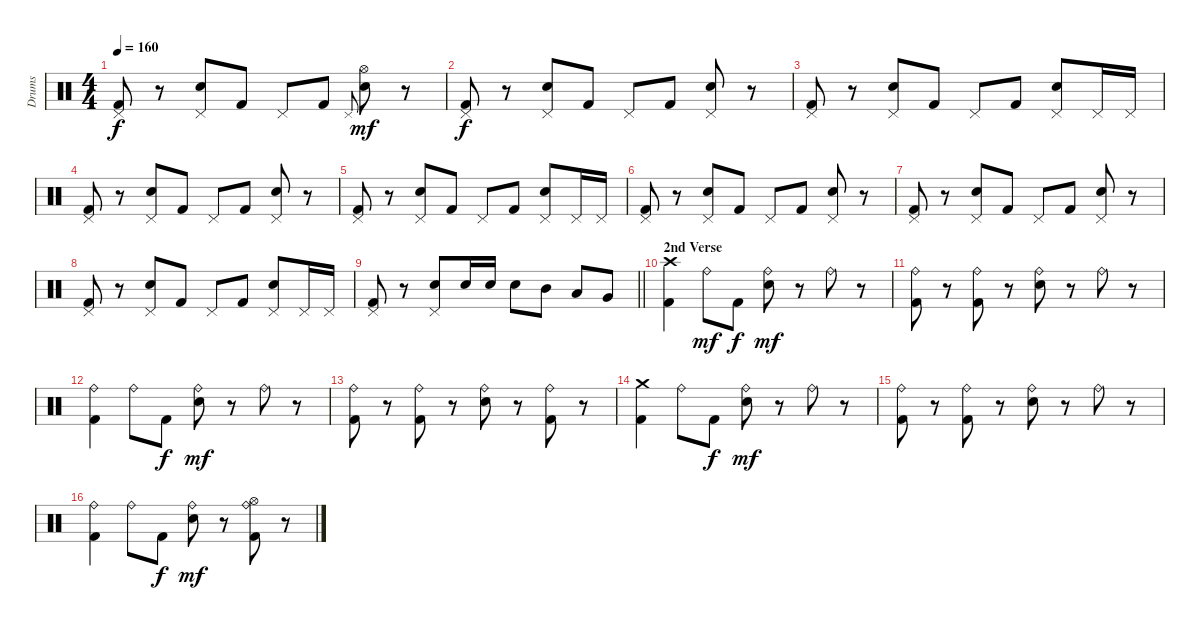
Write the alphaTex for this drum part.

\track ("Drums" "Drums") {instrument percussion}
\staff {score}
\articulation defaults
\ts (4 4)
\tempo 160
\clef neutral
\ks c
("Pedal Hi-Hat (hit)" "Kick (hit) 2").8{dy f} r.8 ("Pedal Hi-Hat (hit)" "Electric Snare (hit)").8 "Kick (hit) 2".8 "Pedal Hi-Hat (hit)".8 "Kick (hit) 2".8 "Pedal Hi-Hat (hit)".8{gr onbeat} ("Hi-Hat (open)" "Electric Snare (hit)").8{dy mf} r.8 |
("Pedal Hi-Hat (hit)" "Kick (hit) 2").8{dy f} r.8 ("Pedal Hi-Hat (hit)" "Electric Snare (hit)").8 "Kick (hit) 2".8 "Pedal Hi-Hat (hit)".8 "Kick (hit) 2".8 ("Pedal Hi-Hat (hit)" "Electric Snare (hit)").8 r.8 |
("Pedal Hi-Hat (hit)" "Kick (hit) 2").8 r.8 ("Pedal Hi-Hat (hit)" "Electric Snare (hit)").8 "Kick (hit) 2".8 "Pedal Hi-Hat (hit)".8 "Kick (hit) 2".8 ("Pedal Hi-Hat (hit)" "Electric Snare (hit)").8 "Pedal Hi-Hat (hit)".16 "Pedal Hi-Hat (hit)".16 |
("Pedal Hi-Hat (hit)" "Kick (hit) 2").8 r.8 ("Pedal Hi-Hat (hit)" "Electric Snare (hit)").8 "Kick (hit) 2".8 "Pedal Hi-Hat (hit)".8 "Kick (hit) 2".8 ("Pedal Hi-Hat (hit)" "Electric Snare (hit)").8 r.8 |
("Pedal Hi-Hat (hit)" "Kick (hit) 2").8 r.8 ("Pedal Hi-Hat (hit)" "Electric Snare (hit)").8 "Kick (hit) 2".8 "Pedal Hi-Hat (hit)".8 "Kick (hit) 2".8 ("Pedal Hi-Hat (hit)" "Electric Snare (hit)").8 "Pedal Hi-Hat (hit)".16 "Pedal Hi-Hat (hit)".16 |
("Pedal Hi-Hat (hit)" "Kick (hit) 2").8 r.8 ("Pedal Hi-Hat (hit)" "Electric Snare (hit)").8 "Kick (hit) 2".8 "Pedal Hi-Hat (hit)".8 "Kick (hit) 2".8 ("Pedal Hi-Hat (hit)" "Electric Snare (hit)").8 r.8 |
("Pedal Hi-Hat (hit)" "Kick (hit) 2").8 r.8 ("Pedal Hi-Hat (hit)" "Electric Snare (hit)").8 "Kick (hit) 2".8 "Pedal Hi-Hat (hit)".8 "Kick (hit) 2".8 ("Pedal Hi-Hat (hit)" "Electric Snare (hit)").8 r.8 |
("Pedal Hi-Hat (hit)" "Kick (hit) 2").8 r.8 ("Pedal Hi-Hat (hit)" "Electric Snare (hit)").8 "Kick (hit) 2".8 "Pedal Hi-Hat (hit)".8 "Kick (hit) 2".8 ("Pedal Hi-Hat (hit)" "Electric Snare (hit)").8 "Pedal Hi-Hat (hit)".16 "Pedal Hi-Hat (hit)".16 |
\barLineRight lightlight
("Pedal Hi-Hat (hit)" "Kick (hit) 2").8 r.8 ("Pedal Hi-Hat (hit)" "Electric Snare (hit)").8 "Electric Snare (hit)".16 "Electric Snare (hit)".16 "Electric Snare (hit)".8 "Mid Tom (hit)".8 "Low Tom (hit)".8 "Very Low Tom (hit)".8 |
\section ("" "2nd Verse")
("Crash high (hit)" "Kick (hit) 2").4 "Ride (bell)".8{dy mf} "Kick (hit) 2".8{dy f} ("Ride (bell)" "Electric Snare (hit)").8{dy mf} r.8 "Ride (bell)".8 r.8 |
("Ride (bell)" "Kick (hit) 2").8 r.8 ("Ride (bell)" "Kick (hit) 2").8 r.8 ("Ride (bell)" "Electric Snare (hit)").8 r.8 "Ride (bell)".8 r.8 |
("Ride (bell)" "Kick (hit) 2").4 "Ride (bell)".8 "Kick (hit) 2".8{dy f} ("Ride (bell)" "Electric Snare (hit)").8{dy mf} r.8 "Ride (bell)".8 r.8 |
("Ride (bell)" "Kick (hit) 2").8 r.8 ("Ride (bell)" "Kick (hit) 2").8 r.8 ("Ride (bell)" "Electric Snare (hit)").8 r.8 ("Ride (bell)" "Kick (hit) 2").8 r.8 |
("Crash medium (hit)" "Kick (hit) 2").4 "Ride (bell)".8 "Kick (hit) 2".8{dy f} ("Ride (bell)" "Electric Snare (hit)").8{dy mf} r.8 "Ride (bell)".8 r.8 |
("Ride (bell)" "Kick (hit) 2").8 r.8 ("Ride (bell)" "Kick (hit) 2").8 r.8 ("Ride (bell)" "Electric Snare (hit)").8 r.8 "Ride (bell)".8 r.8 |
("Ride (bell)" "Kick (hit) 2").4 "Ride (bell)".8 "Kick (hit) 2".8{dy f} ("Ride (bell)" "Electric Snare (hit)").8{dy mf} r.8 ("Ride (bell)" "Hi-Hat (open)" "Kick (hit) 2").8 r.8
